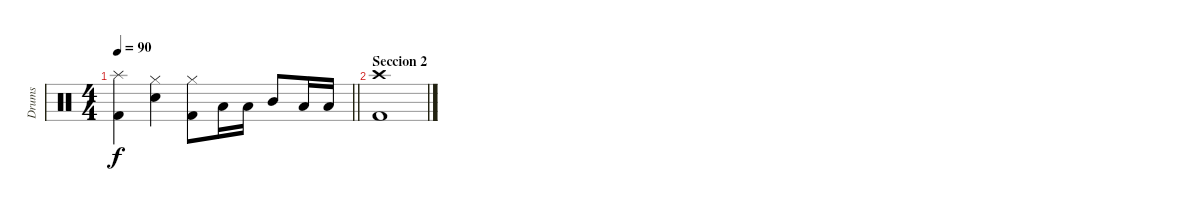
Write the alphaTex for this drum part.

\track ("Drums" "Drums") {instrument percussion}
\staff {score}
\articulation defaults
\ts (4 4)
\tempo 90
\clef neutral
\barLineRight lightlight
\ks c
("Splash (hit)" "Kick (hit) 2").4{dy f} ("Hi-Hat (closed)" "Snare (hit) 2").4 ("Hi-Hat (closed)" "Kick (hit) 2").8 "Low Floor Tom (hit)".16 "Low Floor Tom (hit)".16 "Mid Tom (hit)".8 "Low Tom (hit)".16 "Low Tom (hit)".16 |
\section ("" "Seccion 2")
("Crash high (hit)" "Kick (hit) 2").1
